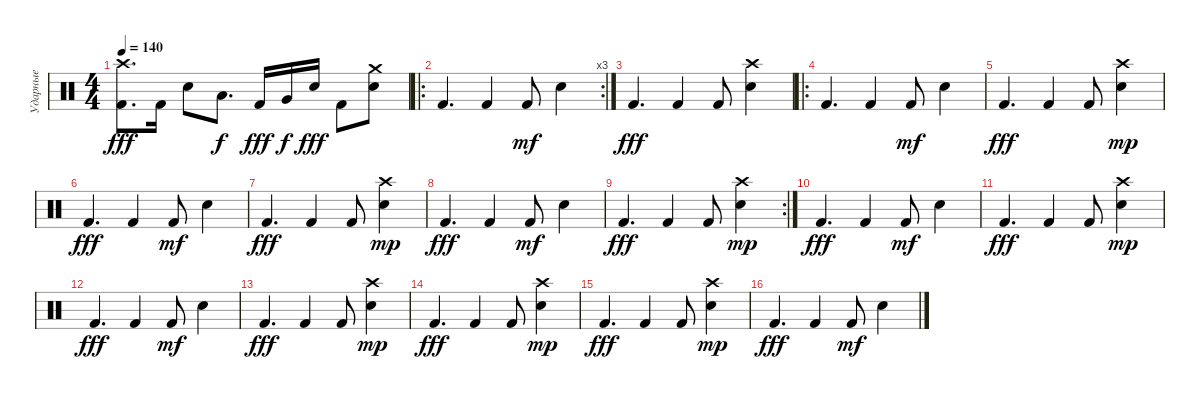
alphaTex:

\track ("Ударные" "Ударные") {instrument percussion}
\staff {score}
\articulation defaults
\ts (4 4)
\tempo 140
\clef neutral
\ks c
("Kick (hit) 2" "Crash high (hit)").8{d dy fff} "Kick (hit) 2".16 "Electric Snare (hit)".8 "Low Floor Tom (hit)".8{d dy f} "Kick (hit) 2".16{dy fff} "Very Low Tom (hit)".16{dy f} "Electric Snare (hit)".16{dy fff} "Kick (hit) 2".8 ("Electric Snare (hit)" "Crash medium (hit)").8 |
\ro
\rc 3 "Kick (hit) 2".4{d} "Kick (hit) 2".4 "Kick (hit) 2".8{dy mf} "Electric Snare (hit)".4
|
"Kick (hit) 2".4{d dy fff} "Kick (hit) 2".4 "Kick (hit) 2".8 ("Electric Snare (hit)" "Crash high (hit)").4 |
\ro "Kick (hit) 2".4{d} "Kick (hit) 2".4 "Kick (hit) 2".8{dy mf} "Electric Snare (hit)".4
|
"Kick (hit) 2".4{d dy fff} "Kick (hit) 2".4 "Kick (hit) 2".8 ("Electric Snare (hit)" "Crash high (hit)").4{dy mp} |
"Kick (hit) 2".4{d dy fff} "Kick (hit) 2".4 "Kick (hit) 2".8{dy mf} "Electric Snare (hit)".4 |
"Kick (hit) 2".4{d dy fff} "Kick (hit) 2".4 "Kick (hit) 2".8 ("Electric Snare (hit)" "Crash high (hit)").4{dy mp} |
"Kick (hit) 2".4{d dy fff} "Kick (hit) 2".4 "Kick (hit) 2".8{dy mf} "Electric Snare (hit)".4 |
\rc 2 "Kick (hit) 2".4{d dy fff} "Kick (hit) 2".4 "Kick (hit) 2".8
("Electric Snare (hit)" "Crash high (hit)").4{dy mp} |
"Kick (hit) 2".4{d dy fff} "Kick (hit) 2".4 "Kick (hit) 2".8{dy mf} "Electric Snare (hit)".4 |
"Kick (hit) 2".4{d dy fff} "Kick (hit) 2".4 "Kick (hit) 2".8 ("Electric Snare (hit)" "Crash high (hit)").4{dy mp} |
"Kick (hit) 2".4{d dy fff} "Kick (hit) 2".4 "Kick (hit) 2".8{dy mf} "Electric Snare (hit)".4 |
"Kick (hit) 2".4{d dy fff} "Kick (hit) 2".4 "Kick (hit) 2".8 ("Electric Snare (hit)" "Crash high (hit)").4{dy mp} |
"Kick (hit) 2".4{d dy fff} "Kick (hit) 2".4 "Kick (hit) 2".8 ("Electric Snare (hit)" "Crash high (hit)").4{dy mp} |
"Kick (hit) 2".4{d dy fff} "Kick (hit) 2".4 "Kick (hit) 2".8 ("Electric Snare (hit)" "Crash high (hit)").4{dy mp} |
"Kick (hit) 2".4{d dy fff} "Kick (hit) 2".4 "Kick (hit) 2".8{dy mf} "Electric Snare (hit)".4
